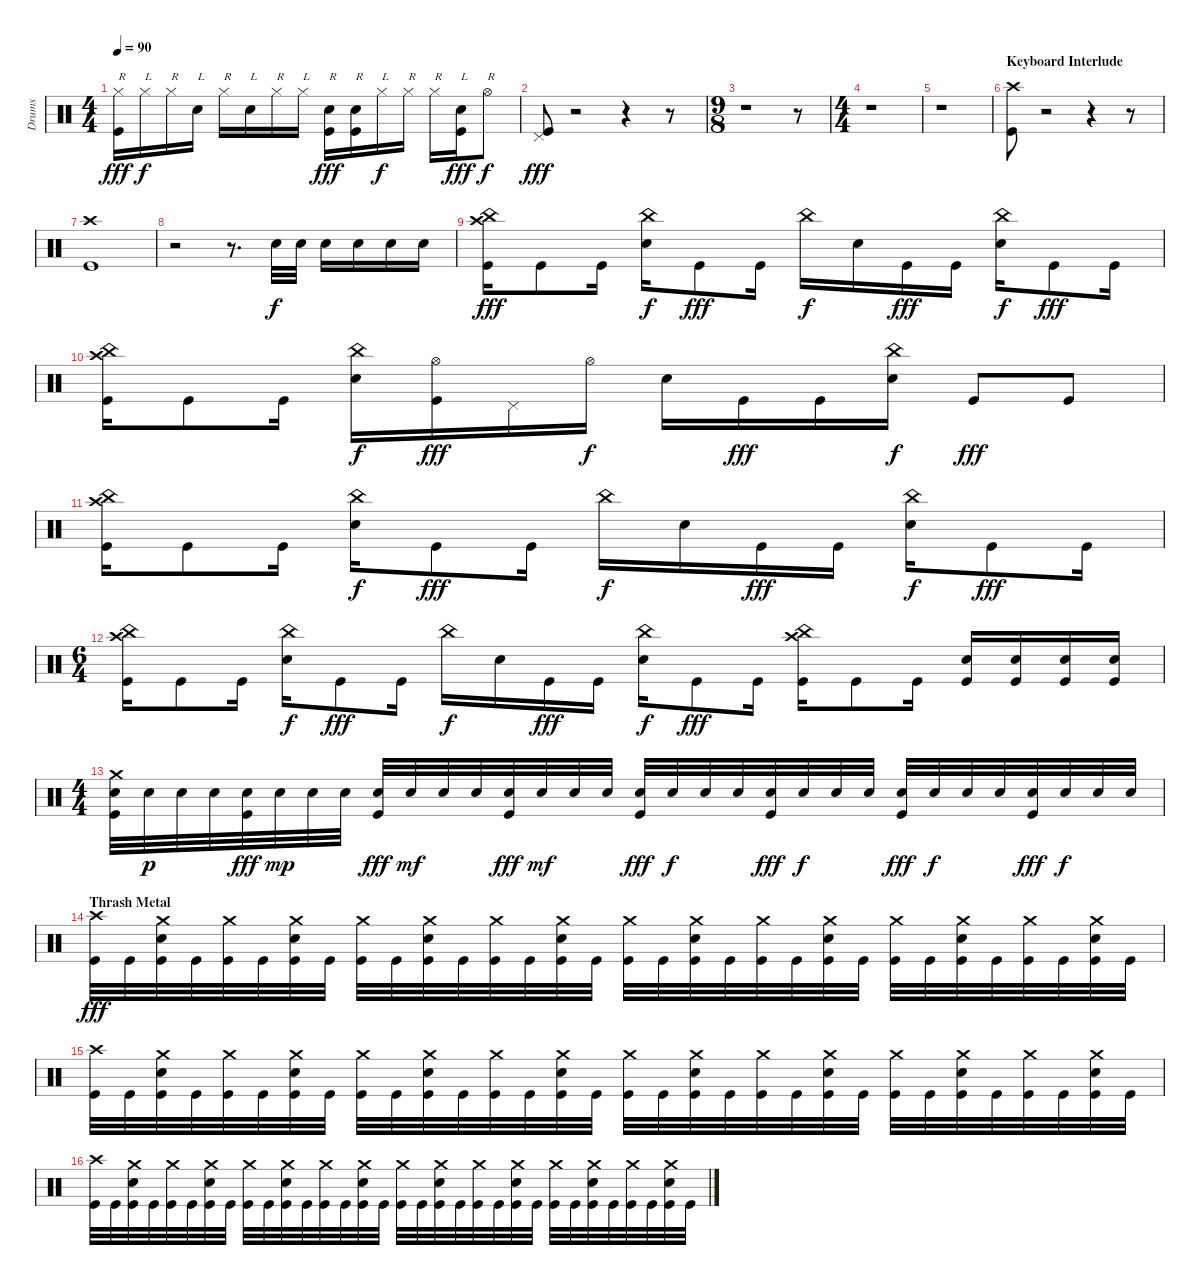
\track ("Drums" "Drums") {instrument percussion}
\staff {score}
\articulation defaults
\ts (4 4)
\tempo 90
\clef neutral
\ks c
("Hi-Hat (closed)" "Kick (hit)").16{txt "R" dy fff} "Hi-Hat (closed)".16{txt "L" dy f} "Hi-Hat (closed)".16{txt "R"} "Electric Snare (hit)".16{txt "L"} "Hi-Hat (closed)".16{txt "R"} "Electric Snare (hit)".16{txt "L"} "Hi-Hat (closed)".16{txt "R"} "Hi-Hat (closed)".16{txt "L"} ("Electric Snare (hit)" "Kick (hit)").16{txt "R" dy fff} ("Electric Snare (hit)" "Kick (hit)").16{txt "R"} "Hi-Hat (closed)".16{txt "L" dy f} "Hi-Hat (closed)".16{txt "R"} "Hi-Hat (closed)".16{txt "R"} ("Electric Snare (hit)" "Kick (hit)").16{txt "L" dy fff} "Hi-Hat (open)".8{txt "R" dy f} |
("Pedal Hi-Hat (hit)" "Kick (hit)").8{dy fff} r.2 r.4 r.8 |
\ts (9 8)
r.1 r.8 |
\ts (4 4)
r.1 |
r.1 |
\section ("" "Keyboard Interlude")
("Crash high (hit)" "Kick (hit)").8 r.2{volume 0} r.4 r.8 |
("Crash high (hit)" "Kick (hit)").1{volume 14} |
r.2 r.8{d} "Electric Snare (hit)".32{dy f} "Electric Snare (hit)".32 "Electric Snare (hit)".16 "Electric Snare (hit)".16 "Electric Snare (hit)".16 "Electric Snare (hit)".16 |
("Crash high (hit)" "China (hit)" "Kick (hit)").16{dy fff} "Kick (hit)".8 "Kick (hit)".16 ("China (hit)" "Electric Snare (hit)").16{dy f} "Kick (hit)".8{dy fff} "Kick (hit)".16 "China (hit)".16{dy f} "Electric Snare (hit)".16 "Kick (hit)".16{dy fff} "Kick (hit)".16 ("China (hit)" "Electric Snare (hit)").16{dy f} "Kick (hit)".8{dy fff} "Kick (hit)".16 |
("Crash high (hit)" "China (hit)" "Kick (hit)").16 "Kick (hit)".8 "Kick (hit)".16 ("China (hit)" "Electric Snare (hit)").16{dy f} ("Hi-Hat (open)" "Kick (hit)").16{dy fff} "Pedal Hi-Hat (hit)".16 "Hi-Hat (open)".16{dy f} "Electric Snare (hit)".16 "Kick (hit)".16{dy fff} "Kick (hit)".16 ("China (hit)" "Electric Snare (hit)").16{dy f} "Kick (hit)".8{dy fff} "Kick (hit)".8 |
("Crash high (hit)" "China (hit)" "Kick (hit)").16 "Kick (hit)".8 "Kick (hit)".16 ("China (hit)" "Electric Snare (hit)").16{dy f} "Kick (hit)".8{dy fff} "Kick (hit)".16 "China (hit)".16{dy f} "Electric Snare (hit)".16 "Kick (hit)".16{dy fff} "Kick (hit)".16 ("China (hit)" "Electric Snare (hit)").16{dy f} "Kick (hit)".8{dy fff} "Kick (hit)".16 |
\ts (6 4)
("Crash high (hit)" "China (hit)" "Kick (hit)").16 "Kick (hit)".8 "Kick (hit)".16 ("China (hit)" "Electric Snare (hit)").16{dy f} "Kick (hit)".8{dy fff} "Kick (hit)".16 "China (hit)".16{dy f} "Electric Snare (hit)".16 "Kick (hit)".16{dy fff} "Kick (hit)".16 ("China (hit)" "Electric Snare (hit)").16{dy f} "Kick (hit)".8{dy fff} "Kick (hit)".16 ("Crash high (hit)" "China (hit)" "Kick (hit)").16 "Kick (hit)".8 "Kick (hit)".16 ("Electric Snare (hit)" "Kick (hit)").16 ("Electric Snare (hit)" "Kick (hit)").16 ("Electric Snare (hit)" "Kick (hit)").16 ("Electric Snare (hit)" "Kick (hit)").16 |
\ts (4 4)
("Crash medium (hit)" "Electric Snare (hit)" "Kick (hit)").32 "Electric Snare (hit)".32{dy p} "Electric Snare (hit)".32 "Electric Snare (hit)".32 ("Electric Snare (hit)" "Kick (hit)").32{dy fff} "Electric Snare (hit)".32{dy mp} "Electric Snare (hit)".32 "Electric Snare (hit)".32 ("Electric Snare (hit)" "Kick (hit)").32{dy fff} "Electric Snare (hit)".32{dy mf} "Electric Snare (hit)".32 "Electric Snare (hit)".32 ("Electric Snare (hit)" "Kick (hit)").32{dy fff} "Electric Snare (hit)".32{dy mf} "Electric Snare (hit)".32 "Electric Snare (hit)".32 ("Electric Snare (hit)" "Kick (hit)").32{dy fff} "Electric Snare (hit)".32{dy f} "Electric Snare (hit)".32 "Electric Snare (hit)".32 ("Electric Snare (hit)" "Kick (hit)").32{dy fff} "Electric Snare (hit)".32{dy f} "Electric Snare (hit)".32 "Electric Snare (hit)".32 ("Electric Snare (hit)" "Kick (hit)").32{dy fff} "Electric Snare (hit)".32{dy f} "Electric Snare (hit)".32 "Electric Snare (hit)".32 ("Electric Snare (hit)" "Kick (hit)").32{dy fff} "Electric Snare (hit)".32{dy f} "Electric Snare (hit)".32 "Electric Snare (hit)".32 |
\section ("" "Thrash Metal")
("Crash high (hit)" "Kick (hit)").32{dy fff} "Kick (hit)".32 ("Crash medium (hit)" "Electric Snare (hit)" "Kick (hit)").32 "Kick (hit)".32 ("Crash medium (hit)" "Kick (hit)").32 "Kick (hit)".32 ("Crash medium (hit)" "Electric Snare (hit)" "Kick (hit)").32 "Kick (hit)".32 ("Crash medium (hit)" "Kick (hit)").32 "Kick (hit)".32 ("Crash medium (hit)" "Electric Snare (hit)" "Kick (hit)").32 "Kick (hit)".32 ("Crash medium (hit)" "Kick (hit)").32 "Kick (hit)".32 ("Crash medium (hit)" "Electric Snare (hit)" "Kick (hit)").32 "Kick (hit)".32 ("Crash medium (hit)" "Kick (hit)").32 "Kick (hit)".32 ("Crash medium (hit)" "Electric Snare (hit)" "Kick (hit)").32 "Kick (hit)".32 ("Crash medium (hit)" "Kick (hit)").32 "Kick (hit)".32 ("Crash medium (hit)" "Electric Snare (hit)" "Kick (hit)").32 "Kick (hit)".32 ("Crash medium (hit)" "Kick (hit)").32 "Kick (hit)".32 ("Crash medium (hit)" "Electric Snare (hit)" "Kick (hit)").32 "Kick (hit)".32 ("Crash medium (hit)" "Kick (hit)").32 "Kick (hit)".32 ("Crash medium (hit)" "Electric Snare (hit)" "Kick (hit)").32 "Kick (hit)".32 |
("Crash high (hit)" "Kick (hit)").32 "Kick (hit)".32 ("Crash medium (hit)" "Electric Snare (hit)" "Kick (hit)").32 "Kick (hit)".32 ("Crash medium (hit)" "Kick (hit)").32 "Kick (hit)".32 ("Crash medium (hit)" "Electric Snare (hit)" "Kick (hit)").32 "Kick (hit)".32 ("Crash medium (hit)" "Kick (hit)").32 "Kick (hit)".32 ("Crash medium (hit)" "Electric Snare (hit)" "Kick (hit)").32 "Kick (hit)".32 ("Crash medium (hit)" "Kick (hit)").32 "Kick (hit)".32 ("Crash medium (hit)" "Electric Snare (hit)" "Kick (hit)").32 "Kick (hit)".32 ("Crash medium (hit)" "Kick (hit)").32 "Kick (hit)".32 ("Crash medium (hit)" "Electric Snare (hit)" "Kick (hit)").32 "Kick (hit)".32 ("Crash medium (hit)" "Kick (hit)").32 "Kick (hit)".32 ("Crash medium (hit)" "Electric Snare (hit)" "Kick (hit)").32 "Kick (hit)".32 ("Crash medium (hit)" "Kick (hit)").32 "Kick (hit)".32 ("Crash medium (hit)" "Electric Snare (hit)" "Kick (hit)").32 "Kick (hit)".32 ("Crash medium (hit)" "Kick (hit)").32 "Kick (hit)".32 ("Crash medium (hit)" "Electric Snare (hit)" "Kick (hit)").32 "Kick (hit)".32 |
("Crash high (hit)" "Kick (hit)").32 "Kick (hit)".32 ("Crash medium (hit)" "Electric Snare (hit)" "Kick (hit)").32 "Kick (hit)".32 ("Crash medium (hit)" "Kick (hit)").32 "Kick (hit)".32 ("Crash medium (hit)" "Electric Snare (hit)" "Kick (hit)").32 "Kick (hit)".32 ("Crash medium (hit)" "Kick (hit)").32 "Kick (hit)".32 ("Crash medium (hit)" "Electric Snare (hit)" "Kick (hit)").32 "Kick (hit)".32 ("Crash medium (hit)" "Kick (hit)").32 "Kick (hit)".32 ("Crash medium (hit)" "Electric Snare (hit)" "Kick (hit)").32 "Kick (hit)".32 ("Crash medium (hit)" "Kick (hit)").32 "Kick (hit)".32 ("Crash medium (hit)" "Electric Snare (hit)" "Kick (hit)").32 "Kick (hit)".32 ("Crash medium (hit)" "Kick (hit)").32 "Kick (hit)".32 ("Crash medium (hit)" "Electric Snare (hit)" "Kick (hit)").32 "Kick (hit)".32 ("Crash medium (hit)" "Kick (hit)").32 "Kick (hit)".32 ("Crash medium (hit)" "Electric Snare (hit)" "Kick (hit)").32 "Kick (hit)".32 ("Crash medium (hit)" "Kick (hit)").32 "Kick (hit)".32 ("Crash medium (hit)" "Electric Snare (hit)" "Kick (hit)").32 "Kick (hit)".32
